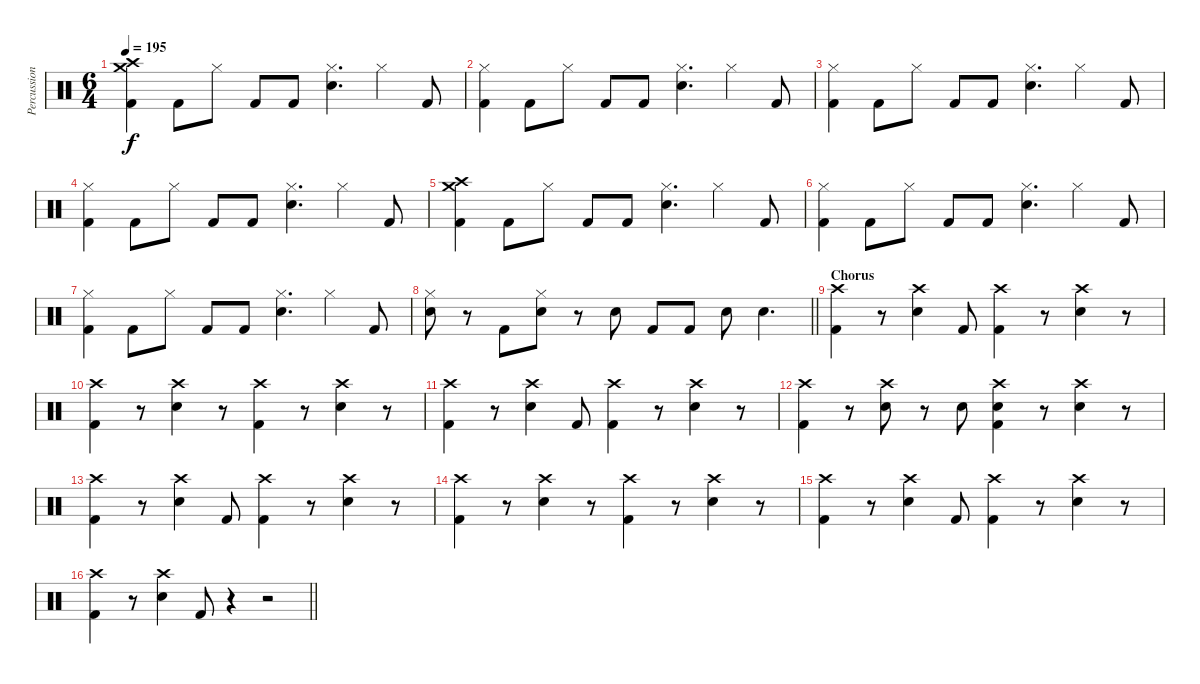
\track ("Percussion" "Percussion") {instrument percussion}
\staff {score}
\articulation defaults
\ts (6 4)
\tempo 195
\clef neutral
\ks c
("Crash high (hit)" "Crash medium (hit)" "Kick (hit) 2").4{dy f} "Kick (hit) 2".8 "Hi-Hat (closed)".8 "Kick (hit) 2".8 "Kick (hit) 2".8 ("Hi-Hat (closed)" "Electric Snare (hit)").4{d} "Hi-Hat (closed)".4 "Kick (hit) 2".8 |
("Hi-Hat (closed)" "Kick (hit) 2").4 "Kick (hit) 2".8 "Hi-Hat (closed)".8 "Kick (hit) 2".8 "Kick (hit) 2".8 ("Hi-Hat (closed)" "Electric Snare (hit)").4{d} "Hi-Hat (closed)".4 "Kick (hit) 2".8 |
("Hi-Hat (closed)" "Kick (hit) 2").4 "Kick (hit) 2".8 "Hi-Hat (closed)".8 "Kick (hit) 2".8 "Kick (hit) 2".8 ("Hi-Hat (closed)" "Electric Snare (hit)").4{d} "Hi-Hat (closed)".4 "Kick (hit) 2".8 |
("Hi-Hat (closed)" "Kick (hit) 2").4 "Kick (hit) 2".8 "Hi-Hat (closed)".8 "Kick (hit) 2".8 "Kick (hit) 2".8 ("Hi-Hat (closed)" "Electric Snare (hit)").4{d} "Hi-Hat (closed)".4 "Kick (hit) 2".8 |
("Crash high (hit)" "Crash medium (hit)" "Kick (hit) 2").4 "Kick (hit) 2".8 "Hi-Hat (closed)".8 "Kick (hit) 2".8 "Kick (hit) 2".8 ("Hi-Hat (closed)" "Electric Snare (hit)").4{d} "Hi-Hat (closed)".4 "Kick (hit) 2".8 |
("Hi-Hat (closed)" "Kick (hit) 2").4 "Kick (hit) 2".8 "Hi-Hat (closed)".8 "Kick (hit) 2".8 "Kick (hit) 2".8 ("Hi-Hat (closed)" "Electric Snare (hit)").4{d} "Hi-Hat (closed)".4 "Kick (hit) 2".8 |
("Hi-Hat (closed)" "Kick (hit) 2").4 "Kick (hit) 2".8 "Hi-Hat (closed)".8 "Kick (hit) 2".8 "Kick (hit) 2".8 ("Hi-Hat (closed)" "Electric Snare (hit)").4{d} "Hi-Hat (closed)".4 "Kick (hit) 2".8 |
\barLineRight lightlight
("Hi-Hat (closed)" "Electric Snare (hit)").8 r.8 "Kick (hit) 2".8 ("Hi-Hat (closed)" "Electric Snare (hit)").8 r.8 "Electric Snare (hit)".8 "Kick (hit) 2".8 "Kick (hit) 2".8 "Electric Snare (hit)".8 "Electric Snare (hit)".4{d} |
\section ("" "Chorus")
("Crash high (hit)" "Kick (hit) 2").4 r.8 ("Crash high (hit)" "Electric Snare (hit)").4 "Kick (hit) 2".8 ("Crash high (hit)" "Kick (hit) 2").4 r.8 ("Crash high (hit)" "Electric Snare (hit)").4 r.8 |
("Crash high (hit)" "Kick (hit) 2").4 r.8 ("Crash high (hit)" "Electric Snare (hit)").4 r.8 ("Crash high (hit)" "Kick (hit) 2").4 r.8 ("Crash high (hit)" "Electric Snare (hit)").4 r.8 |
("Crash high (hit)" "Kick (hit) 2").4 r.8 ("Crash high (hit)" "Electric Snare (hit)").4 "Kick (hit) 2".8 ("Crash high (hit)" "Kick (hit) 2").4 r.8 ("Crash high (hit)" "Electric Snare (hit)").4 r.8 |
("Crash high (hit)" "Kick (hit) 2").4 r.8 ("Crash high (hit)" "Electric Snare (hit)").8 r.8 "Electric Snare (hit)".8 ("Crash high (hit)" "Electric Snare (hit)" "Kick (hit) 2").4 r.8 ("Crash high (hit)" "Electric Snare (hit)").4 r.8 |
("Crash high (hit)" "Kick (hit) 2").4 r.8 ("Crash high (hit)" "Electric Snare (hit)").4 "Kick (hit) 2".8 ("Crash high (hit)" "Kick (hit) 2").4 r.8 ("Crash high (hit)" "Electric Snare (hit)").4 r.8 |
("Crash high (hit)" "Kick (hit) 2").4 r.8 ("Crash high (hit)" "Electric Snare (hit)").4 r.8 ("Crash high (hit)" "Kick (hit) 2").4 r.8 ("Crash high (hit)" "Electric Snare (hit)").4 r.8 |
("Crash high (hit)" "Kick (hit) 2").4 r.8 ("Crash high (hit)" "Electric Snare (hit)").4 "Kick (hit) 2".8 ("Crash high (hit)" "Kick (hit) 2").4 r.8 ("Crash high (hit)" "Electric Snare (hit)").4 r.8 |
\barLineRight lightlight
("Crash high (hit)" "Kick (hit) 2").4 r.8 ("Crash high (hit)" "Electric Snare (hit)").4 "Kick (hit) 2".8 r.4 r.2
